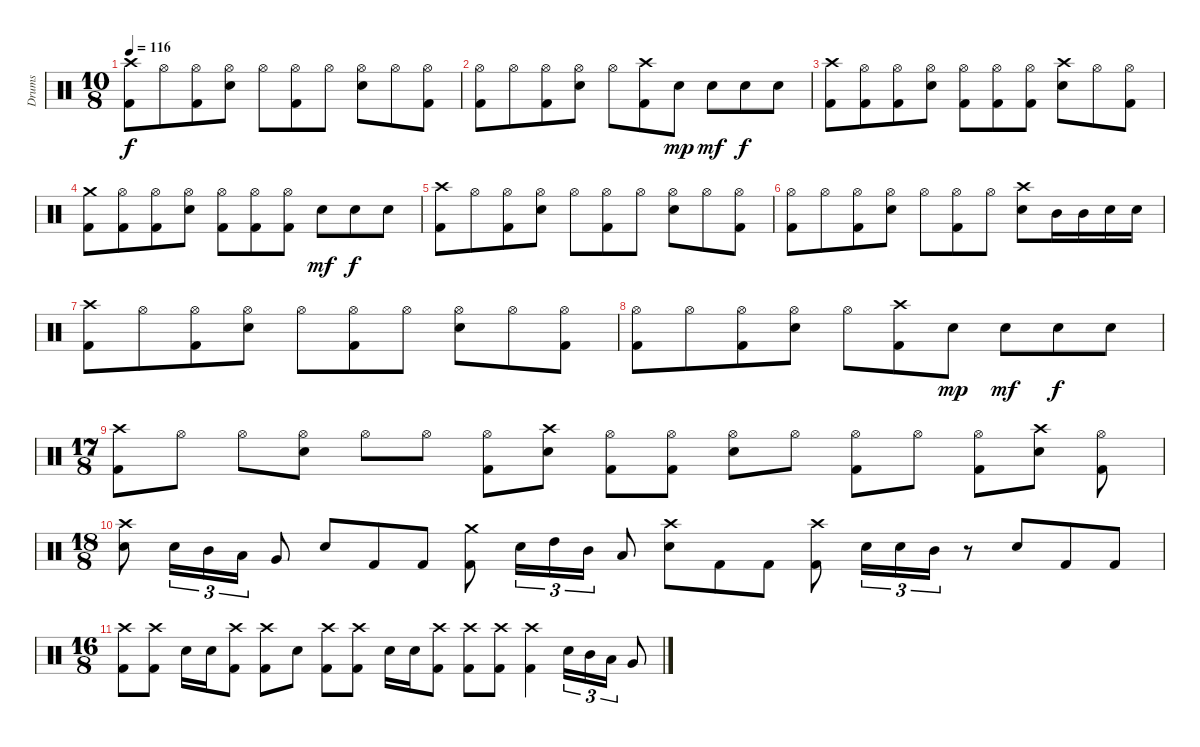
\track ("Drums" "Drums") {instrument percussion}
\staff {score}
\articulation defaults
\ts (10 8)
\tempo 116
\clef neutral
\ks c
("Crash high (hit)" "Kick (hit) 2").8{dy f} "Hi-Hat (open)".8 ("Hi-Hat (open)" "Kick (hit) 2").8 ("Hi-Hat (open)" "Snare (hit) 2").8 "Hi-Hat (open)".8 ("Hi-Hat (open)" "Kick (hit) 2").8 "Hi-Hat (open)".8 ("Hi-Hat (open)" "Snare (hit) 2").8 "Hi-Hat (open)".8 ("Hi-Hat (open)" "Kick (hit) 2").8 |
("Hi-Hat (open)" "Kick (hit) 2").8 "Hi-Hat (open)".8 ("Hi-Hat (open)" "Kick (hit) 2").8 ("Hi-Hat (open)" "Snare (hit) 2").8 "Hi-Hat (open)".8 ("Crash high (hit)" "Kick (hit) 2").8 "Snare (hit) 2".8{dy mp} "Snare (hit) 2".8{dy mf} "Snare (hit) 2".8{dy f} "Snare (hit) 2".8 |
("Crash high (hit)" "Kick (hit) 2").8 ("Hi-Hat (open)" "Kick (hit) 2").8 ("Hi-Hat (open)" "Kick (hit) 2").8 ("Hi-Hat (open)" "Snare (hit) 2").8 ("Hi-Hat (open)" "Kick (hit) 2").8 ("Hi-Hat (open)" "Kick (hit) 2").8 ("Hi-Hat (open)" "Kick (hit) 2").8 ("Crash high (hit)" "Snare (hit) 2").8 "Hi-Hat (open)".8 ("Hi-Hat (open)" "Kick (hit) 2").8 |
("Crash medium (hit)" "Kick (hit) 2").8 ("Hi-Hat (open)" "Kick (hit) 2").8 ("Hi-Hat (open)" "Kick (hit) 2").8 ("Hi-Hat (open)" "Snare (hit) 2").8 ("Hi-Hat (open)" "Kick (hit) 2").8 ("Hi-Hat (open)" "Kick (hit) 2").8 ("Hi-Hat (open)" "Kick (hit) 2").8 "Snare (hit) 2".8{dy mf} "Snare (hit) 2".8{dy f} "Snare (hit) 2".8 |
("Crash high (hit)" "Kick (hit) 2").8 "Hi-Hat (open)".8 ("Hi-Hat (open)" "Kick (hit) 2").8 ("Hi-Hat (open)" "Snare (hit) 2").8 "Hi-Hat (open)".8 ("Hi-Hat (open)" "Kick (hit) 2").8 "Hi-Hat (open)".8 ("Hi-Hat (open)" "Snare (hit) 2").8 "Hi-Hat (open)".8 ("Hi-Hat (open)" "Kick (hit) 2").8 |
("Hi-Hat (open)" "Kick (hit) 2").8 "Hi-Hat (open)".8 ("Hi-Hat (open)" "Kick (hit) 2").8 ("Hi-Hat (open)" "Snare (hit) 2").8 "Hi-Hat (open)".8 ("Hi-Hat (open)" "Kick (hit) 2").8 "Hi-Hat (open)".8 ("Crash high (hit)" "Snare (hit) 2").8 "Mid Tom (hit)".16 "Mid Tom (hit)".16 "Snare (hit) 2".16 "Snare (hit) 2".16 |
("Crash high (hit)" "Kick (hit) 2").8 "Hi-Hat (open)".8 ("Hi-Hat (open)" "Kick (hit) 2").8 ("Hi-Hat (open)" "Snare (hit) 2").8 "Hi-Hat (open)".8 ("Hi-Hat (open)" "Kick (hit) 2").8 "Hi-Hat (open)".8 ("Hi-Hat (open)" "Snare (hit) 2").8 "Hi-Hat (open)".8 ("Hi-Hat (open)" "Kick (hit) 2").8 |
("Hi-Hat (open)" "Kick (hit) 2").8 "Hi-Hat (open)".8 ("Hi-Hat (open)" "Kick (hit) 2").8 ("Hi-Hat (open)" "Snare (hit) 2").8 "Hi-Hat (open)".8 ("Crash high (hit)" "Kick (hit) 2").8 "Snare (hit) 2".8{dy mp} "Snare (hit) 2".8{dy mf} "Snare (hit) 2".8{dy f} "Snare (hit) 2".8 |
\ts (17 8)
("Crash high (hit)" "Kick (hit) 2").8 "Hi-Hat (open)".8 "Hi-Hat (open)".8 ("Hi-Hat (open)" "Snare (hit) 2").8 "Hi-Hat (open)".8 "Hi-Hat (open)".8 ("Hi-Hat (open)" "Kick (hit) 2").8 ("Crash high (hit)" "Snare (hit) 2").8 ("Hi-Hat (open)" "Kick (hit) 2").8 ("Hi-Hat (open)" "Kick (hit) 2").8 ("Hi-Hat (open)" "Snare (hit) 2").8 "Hi-Hat (open)".8 ("Hi-Hat (open)" "Kick (hit) 2").8 "Hi-Hat (open)".8 ("Hi-Hat (open)" "Kick (hit) 2").8 ("Crash high (hit)" "Snare (hit) 2").8 ("Hi-Hat (open)" "Kick (hit) 2").8 |
\ts (18 8)
("Crash high (hit)" "Snare (hit) 2").8 "Snare (hit) 2".16{tu (3 2)} "Mid Tom (hit)".16{tu (3 2)} "Low Tom (hit)".16{tu (3 2)} "Very Low Tom (hit)".8 "Snare (hit) 2".8 "Kick (hit) 2".8 "Kick (hit) 2".8 ("Crash medium (hit)" "Kick (hit) 2").8 "Snare (hit) 2".16{tu (3 2)} "High Tom (hit)".16{tu (3 2)} "Mid Tom (hit)".16{tu (3 2)} "Low Tom (hit)".8 ("Crash high (hit)" "Snare (hit) 2").8 "Kick (hit) 2".8 "Kick (hit) 2".8 ("Crash high (hit)" "Kick (hit) 2").8 "Snare (hit) 2".16{tu (3 2)} "Snare (hit) 2".16{tu (3 2)} "Mid Tom (hit)".16{tu (3 2)} r.8 "Snare (hit) 2".8 "Kick (hit) 2".8 "Kick (hit) 2".8 |
\ts (16 8)
("Crash high (hit)" "Kick (hit) 2").8 ("Crash high (hit)" "Kick (hit) 2").8 "Snare (hit) 2".16 "Snare (hit) 2".16 ("Crash high (hit)" "Kick (hit) 2").8 ("Crash high (hit)" "Kick (hit) 2").8 "Snare (hit) 2".8 ("Crash high (hit)" "Kick (hit) 2").8 ("Crash high (hit)" "Kick (hit) 2").8 "Snare (hit) 2".16 "Snare (hit) 2".16 ("Crash high (hit)" "Kick (hit) 2").8 ("Crash high (hit)" "Kick (hit) 2").8 ("Crash high (hit)" "Kick (hit) 2").8 ("Crash high (hit)" "Kick (hit) 2").4 "Snare (hit) 2".16{tu (3 2)} "Mid Tom (hit)".16{tu (3 2)} "Low Tom (hit)".16{tu (3 2)} "Very Low Tom (hit)".8
